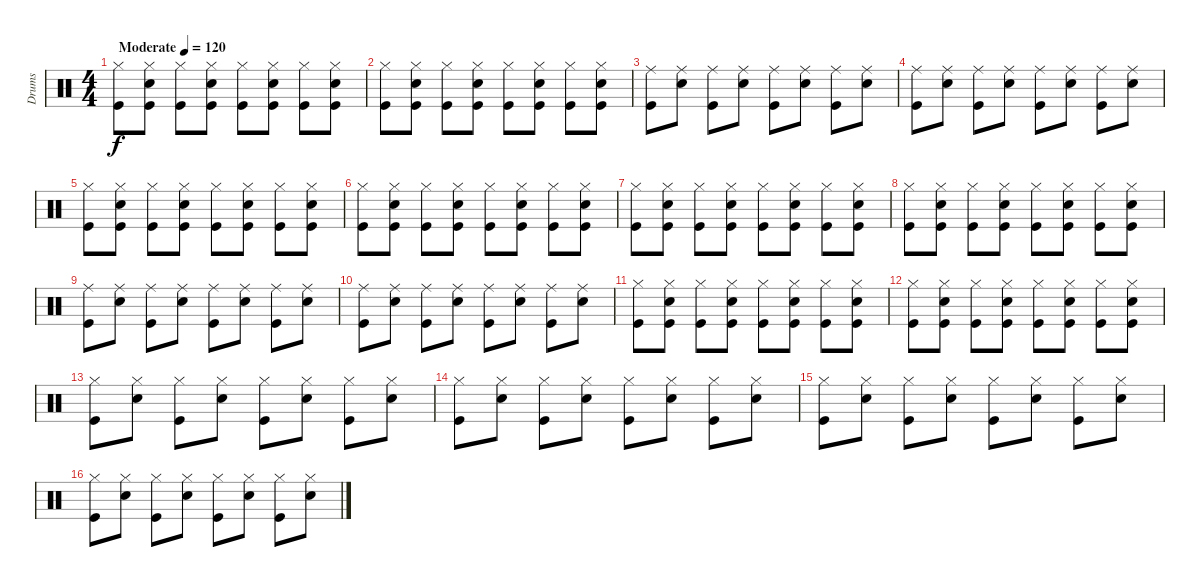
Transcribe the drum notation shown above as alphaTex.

\track ("Drums" "Drums") {instrument percussion}
\staff {score}
\articulation defaults
\ts (4 4)
\tempo (120 "Moderate")
\clef neutral
\ks c
("Hi-Hat (closed)" "Kick (hit)").8{dy f} ("Hi-Hat (closed)" "Snare (hit) 2" "Kick (hit)").8 ("Hi-Hat (closed)" "Kick (hit)").8 ("Hi-Hat (closed)" "Snare (hit) 2" "Kick (hit)").8 ("Hi-Hat (closed)" "Kick (hit)").8 ("Hi-Hat (closed)" "Snare (hit) 2" "Kick (hit)").8 ("Hi-Hat (closed)" "Kick (hit)").8 ("Hi-Hat (closed)" "Snare (hit) 2" "Kick (hit)").8 |
("Hi-Hat (closed)" "Kick (hit)").8 ("Hi-Hat (closed)" "Snare (hit) 2" "Kick (hit)").8 ("Hi-Hat (closed)" "Kick (hit)").8 ("Hi-Hat (closed)" "Snare (hit) 2" "Kick (hit)").8 ("Hi-Hat (closed)" "Kick (hit)").8 ("Hi-Hat (closed)" "Snare (hit) 2" "Kick (hit)").8 ("Hi-Hat (closed)" "Kick (hit)").8 ("Hi-Hat (closed)" "Snare (hit) 2" "Kick (hit)").8 |
("Ride (middle)" "Kick (hit)").8 ("Ride (middle)" "Snare (hit) 2").8 ("Ride (middle)" "Kick (hit)").8 ("Ride (middle)" "Snare (hit) 2").8 ("Ride (middle)" "Kick (hit)").8 ("Ride (middle)" "Snare (hit) 2").8 ("Ride (middle)" "Kick (hit)").8 ("Ride (middle)" "Snare (hit) 2").8 |
("Ride (middle)" "Kick (hit)").8 ("Ride (middle)" "Snare (hit) 2").8 ("Ride (middle)" "Kick (hit)").8 ("Ride (middle)" "Snare (hit) 2").8 ("Ride (middle)" "Kick (hit)").8 ("Ride (middle)" "Snare (hit) 2").8 ("Ride (middle)" "Kick (hit)").8 ("Ride (middle)" "Snare (hit) 2").8 |
("Hi-Hat (closed)" "Kick (hit)").8 ("Hi-Hat (closed)" "Snare (hit) 2" "Kick (hit)").8 ("Hi-Hat (closed)" "Kick (hit)").8 ("Hi-Hat (closed)" "Snare (hit) 2" "Kick (hit)").8 ("Hi-Hat (closed)" "Kick (hit)").8 ("Hi-Hat (closed)" "Snare (hit) 2" "Kick (hit)").8 ("Hi-Hat (closed)" "Kick (hit)").8 ("Hi-Hat (closed)" "Snare (hit) 2" "Kick (hit)").8 |
("Hi-Hat (closed)" "Kick (hit)").8 ("Hi-Hat (closed)" "Snare (hit) 2" "Kick (hit)").8 ("Hi-Hat (closed)" "Kick (hit)").8 ("Hi-Hat (closed)" "Snare (hit) 2" "Kick (hit)").8 ("Hi-Hat (closed)" "Kick (hit)").8 ("Hi-Hat (closed)" "Snare (hit) 2" "Kick (hit)").8 ("Hi-Hat (closed)" "Kick (hit)").8 ("Hi-Hat (closed)" "Snare (hit) 2" "Kick (hit)").8 |
("Hi-Hat (closed)" "Kick (hit)").8 ("Hi-Hat (closed)" "Snare (hit) 2" "Kick (hit)").8 ("Hi-Hat (closed)" "Kick (hit)").8 ("Hi-Hat (closed)" "Snare (hit) 2" "Kick (hit)").8 ("Hi-Hat (closed)" "Kick (hit)").8 ("Hi-Hat (closed)" "Snare (hit) 2" "Kick (hit)").8 ("Hi-Hat (closed)" "Kick (hit)").8 ("Hi-Hat (closed)" "Snare (hit) 2" "Kick (hit)").8 |
("Hi-Hat (closed)" "Kick (hit)").8 ("Hi-Hat (closed)" "Snare (hit) 2" "Kick (hit)").8 ("Hi-Hat (closed)" "Kick (hit)").8 ("Hi-Hat (closed)" "Snare (hit) 2" "Kick (hit)").8 ("Hi-Hat (closed)" "Kick (hit)").8 ("Hi-Hat (closed)" "Snare (hit) 2" "Kick (hit)").8 ("Hi-Hat (closed)" "Kick (hit)").8 ("Hi-Hat (closed)" "Snare (hit) 2" "Kick (hit)").8 |
("Ride (middle)" "Kick (hit)").8 ("Ride (middle)" "Snare (hit) 2").8 ("Ride (middle)" "Kick (hit)").8 ("Ride (middle)" "Snare (hit) 2").8 ("Ride (middle)" "Kick (hit)").8 ("Ride (middle)" "Snare (hit) 2").8 ("Ride (middle)" "Kick (hit)").8 ("Ride (middle)" "Snare (hit) 2").8 |
("Ride (middle)" "Kick (hit)").8 ("Ride (middle)" "Snare (hit) 2").8 ("Ride (middle)" "Kick (hit)").8 ("Ride (middle)" "Snare (hit) 2").8 ("Ride (middle)" "Kick (hit)").8 ("Ride (middle)" "Snare (hit) 2").8 ("Ride (middle)" "Kick (hit)").8 ("Ride (middle)" "Snare (hit) 2").8 |
("Hi-Hat (closed)" "Kick (hit)").8 ("Hi-Hat (closed)" "Snare (hit) 2" "Kick (hit)").8 ("Hi-Hat (closed)" "Kick (hit)").8 ("Hi-Hat (closed)" "Snare (hit) 2" "Kick (hit)").8 ("Hi-Hat (closed)" "Kick (hit)").8 ("Hi-Hat (closed)" "Snare (hit) 2" "Kick (hit)").8 ("Hi-Hat (closed)" "Kick (hit)").8 ("Hi-Hat (closed)" "Snare (hit) 2" "Kick (hit)").8 |
("Hi-Hat (closed)" "Kick (hit)").8 ("Hi-Hat (closed)" "Snare (hit) 2" "Kick (hit)").8 ("Hi-Hat (closed)" "Kick (hit)").8 ("Hi-Hat (closed)" "Snare (hit) 2" "Kick (hit)").8 ("Hi-Hat (closed)" "Kick (hit)").8 ("Hi-Hat (closed)" "Snare (hit) 2" "Kick (hit)").8 ("Hi-Hat (closed)" "Kick (hit)").8 ("Hi-Hat (closed)" "Snare (hit) 2" "Kick (hit)").8 |
("Hi-Hat (closed)" "Kick (hit)").8 ("Hi-Hat (closed)" "Snare (hit) 2").8 ("Hi-Hat (closed)" "Kick (hit)").8 ("Hi-Hat (closed)" "Snare (hit) 2").8 ("Hi-Hat (closed)" "Kick (hit)").8 ("Hi-Hat (closed)" "Snare (hit) 2").8 ("Hi-Hat (closed)" "Kick (hit)").8 ("Hi-Hat (closed)" "Snare (hit) 2").8 |
("Hi-Hat (closed)" "Kick (hit)").8 ("Hi-Hat (closed)" "Snare (hit) 2").8 ("Hi-Hat (closed)" "Kick (hit)").8 ("Hi-Hat (closed)" "Snare (hit) 2").8 ("Hi-Hat (closed)" "Kick (hit)").8 ("Hi-Hat (closed)" "Snare (hit) 2").8 ("Hi-Hat (closed)" "Kick (hit)").8 ("Hi-Hat (closed)" "Snare (hit) 2").8 |
("Hi-Hat (closed)" "Kick (hit)").8 ("Hi-Hat (closed)" "Snare (hit) 2").8 ("Hi-Hat (closed)" "Kick (hit)").8 ("Hi-Hat (closed)" "Snare (hit) 2").8 ("Hi-Hat (closed)" "Kick (hit)").8 ("Hi-Hat (closed)" "Snare (hit) 2").8 ("Hi-Hat (closed)" "Kick (hit)").8 ("Hi-Hat (closed)" "Snare (hit) 2").8 |
("Hi-Hat (closed)" "Kick (hit)").8 ("Hi-Hat (closed)" "Snare (hit) 2").8 ("Hi-Hat (closed)" "Kick (hit)").8 ("Hi-Hat (closed)" "Snare (hit) 2").8 ("Hi-Hat (closed)" "Kick (hit)").8 ("Hi-Hat (closed)" "Snare (hit) 2").8 ("Hi-Hat (closed)" "Kick (hit)").8 ("Hi-Hat (closed)" "Snare (hit) 2").8
